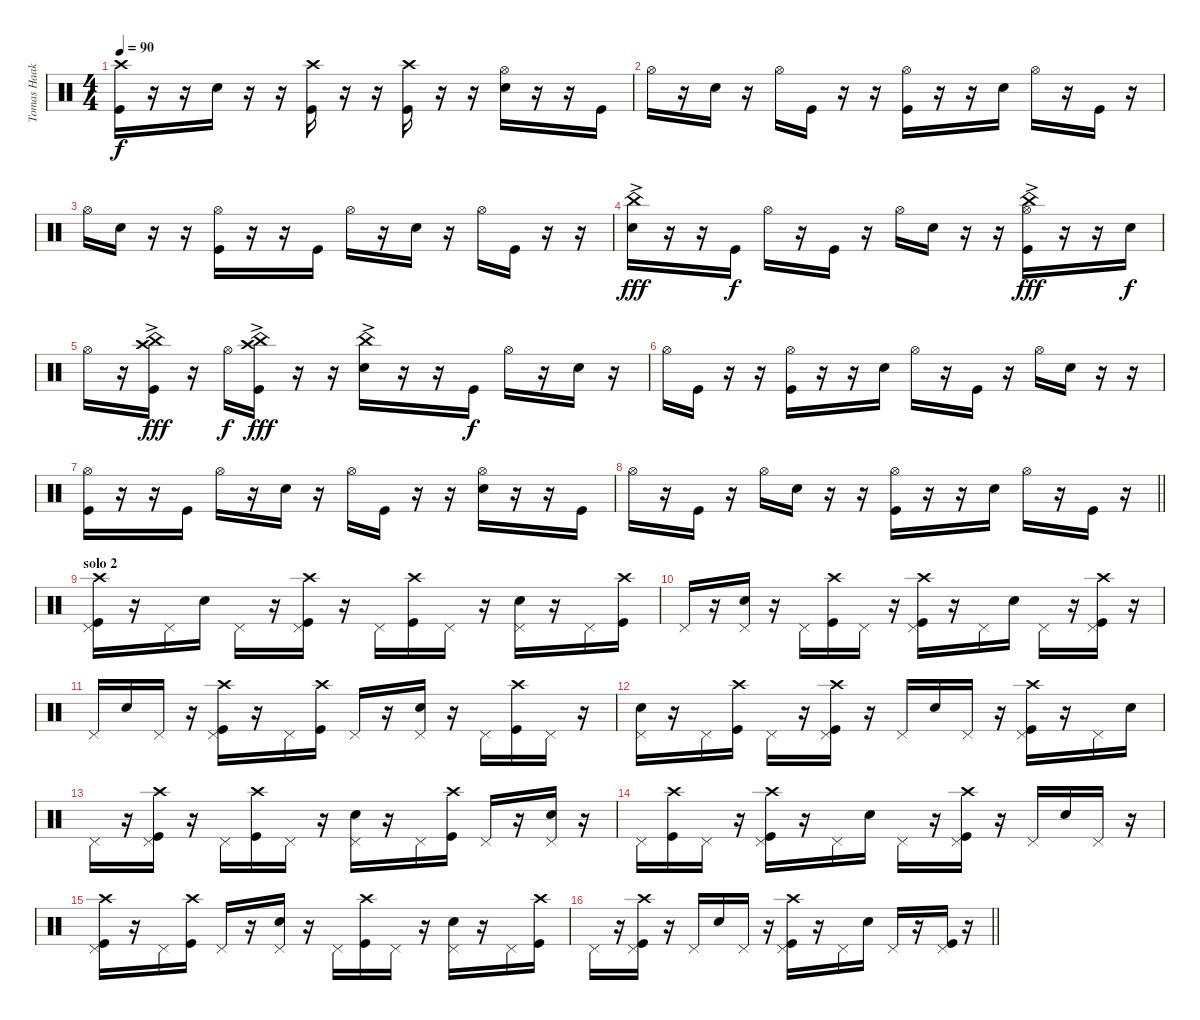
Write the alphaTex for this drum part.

\track ("Tomas Haake" "Tomas Haak") {instrument percussion}
\staff {score}
\articulation defaults
\ts (4 4)
\section ("" "")
\tempo 90
\clef neutral
\ks c
("Crash high (hit)" "Kick (hit)").16{dy f} r.16 r.16 "Electric Snare (hit)".16 r.16 r.16 ("Crash high (hit)" "Kick (hit)").16 r.16 r.16 ("Crash high (hit)" "Kick (hit)").16 r.16 r.16 ("Hi-Hat (open)" "Electric Snare (hit)").16 r.16 r.16 "Kick (hit)".16 |
"Hi-Hat (open)".16 r.16 "Electric Snare (hit)".16 r.16 "Hi-Hat (open)".16 "Kick (hit)".16 r.16 r.16 ("Hi-Hat (open)" "Kick (hit)").16 r.16 r.16 "Electric Snare (hit)".16 "Hi-Hat (open)".16 r.16 "Kick (hit)".16 r.16 |
"Hi-Hat (open)".16 "Electric Snare (hit)".16 r.16 r.16 ("Hi-Hat (open)" "Kick (hit)").16 r.16 r.16 "Kick (hit)".16 "Hi-Hat (open)".16 r.16 "Electric Snare (hit)".16 r.16 "Hi-Hat (open)".16 "Kick (hit)".16 r.16 r.16 |
("China (hit)"{ac} "Electric Snare (hit)").16{dy fff} r.16 r.16 "Kick (hit)".16{dy f} "Hi-Hat (open)".16 r.16 "Kick (hit)".16 r.16 "Hi-Hat (open)".16 "Electric Snare (hit)".16 r.16 r.16 ("Hi-Hat (open)" "China (hit)"{ac} "Kick (hit)").16{dy fff} r.16 r.16 "Electric Snare (hit)".16{dy f} |
"Hi-Hat (open)".16 r.16 ("Crash high (hit)" "China (hit)"{ac} "Kick (hit)").16{dy fff} r.16 "Hi-Hat (open)".16{dy f} ("Crash high (hit)" "China (hit)"{ac} "Kick (hit)").16{dy fff} r.16 r.16 ("China (hit)"{ac} "Electric Snare (hit)").16 r.16 r.16 "Kick (hit)".16{dy f} "Hi-Hat (open)".16 r.16 "Electric Snare (hit)".16 r.16 |
"Hi-Hat (open)".16 "Kick (hit)".16 r.16 r.16 ("Hi-Hat (open)" "Kick (hit)").16 r.16 r.16 "Electric Snare (hit)".16 "Hi-Hat (open)".16 r.16 "Kick (hit)".16 r.16 "Hi-Hat (open)".16 "Electric Snare (hit)".16 r.16 r.16 |
("Hi-Hat (open)" "Kick (hit)").16 r.16 r.16 "Kick (hit)".16 "Hi-Hat (open)".16 r.16 "Electric Snare (hit)".16 r.16 "Hi-Hat (open)".16 "Kick (hit)".16 r.16 r.16 ("Hi-Hat (open)" "Electric Snare (hit)").16 r.16 r.16 "Kick (hit)".16 |
\barLineRight lightlight "Hi-Hat (open)".16
r.16 "Kick (hit)".16 r.16 "Hi-Hat (open)".16 "Electric Snare (hit)".16 r.16 r.16 ("Hi-Hat (open)" "Kick (hit)").16 r.16 r.16 "Electric Snare (hit)".16 "Hi-Hat (open)".16 r.16 "Kick (hit)".16 r.16 |
\section ("" "solo 2")
("Crash high (hit)" "Pedal Hi-Hat (hit)" "Kick (hit)").16 r.16 "Pedal Hi-Hat (hit)".16 "Electric Snare (hit)".16 "Pedal Hi-Hat (hit)".16 r.16 ("Crash high (hit)" "Pedal Hi-Hat (hit)" "Kick (hit)").16 r.16 "Pedal Hi-Hat (hit)".16 ("Crash high (hit)" "Kick (hit)").16 "Pedal Hi-Hat (hit)".16 r.16 ("Pedal Hi-Hat (hit)" "Electric Snare (hit)").16 r.16 "Pedal Hi-Hat (hit)".16 ("Crash high (hit)" "Kick (hit)").16 |
"Pedal Hi-Hat (hit)".16 r.16 ("Pedal Hi-Hat (hit)" "Electric Snare (hit)").16 r.16 "Pedal Hi-Hat (hit)".16 ("Crash high (hit)" "Kick (hit)").16 "Pedal Hi-Hat (hit)".16 r.16 ("Crash high (hit)" "Pedal Hi-Hat (hit)" "Kick (hit)").16 r.16 "Pedal Hi-Hat (hit)".16 "Electric Snare (hit)".16 "Pedal Hi-Hat (hit)".16 r.16 ("Crash high (hit)" "Pedal Hi-Hat (hit)" "Kick (hit)").16 r.16 |
"Pedal Hi-Hat (hit)".16 "Electric Snare (hit)".16 "Pedal Hi-Hat (hit)".16 r.16 ("Crash high (hit)" "Pedal Hi-Hat (hit)" "Kick (hit)").16 r.16 "Pedal Hi-Hat (hit)".16 ("Crash high (hit)" "Kick (hit)").16 "Pedal Hi-Hat (hit)".16 r.16 ("Pedal Hi-Hat (hit)" "Electric Snare (hit)").16 r.16 "Pedal Hi-Hat (hit)".16 ("Crash high (hit)" "Kick (hit)").16 "Pedal Hi-Hat (hit)".16 r.16 |
("Pedal Hi-Hat (hit)" "Electric Snare (hit)").16 r.16 "Pedal Hi-Hat (hit)".16 ("Crash high (hit)" "Kick (hit)").16 "Pedal Hi-Hat (hit)".16 r.16 ("Crash high (hit)" "Pedal Hi-Hat (hit)" "Kick (hit)").16 r.16 "Pedal Hi-Hat (hit)".16 "Electric Snare (hit)".16 "Pedal Hi-Hat (hit)".16 r.16 ("Crash high (hit)" "Pedal Hi-Hat (hit)" "Kick (hit)").16 r.16 "Pedal Hi-Hat (hit)".16 "Electric Snare (hit)".16 |
"Pedal Hi-Hat (hit)".16 r.16 ("Crash high (hit)" "Pedal Hi-Hat (hit)" "Kick (hit)").16 r.16 "Pedal Hi-Hat (hit)".16 ("Crash high (hit)" "Kick (hit)").16 "Pedal Hi-Hat (hit)".16 r.16 ("Pedal Hi-Hat (hit)" "Electric Snare (hit)").16 r.16 "Pedal Hi-Hat (hit)".16 ("Crash high (hit)" "Kick (hit)").16 "Pedal Hi-Hat (hit)".16 r.16 ("Pedal Hi-Hat (hit)" "Electric Snare (hit)").16 r.16 |
"Pedal Hi-Hat (hit)".16 ("Crash high (hit)" "Kick (hit)").16 "Pedal Hi-Hat (hit)".16 r.16 ("Crash high (hit)" "Pedal Hi-Hat (hit)" "Kick (hit)").16 r.16 "Pedal Hi-Hat (hit)".16 "Electric Snare (hit)".16 "Pedal Hi-Hat (hit)".16 r.16 ("Crash high (hit)" "Pedal Hi-Hat (hit)" "Kick (hit)").16 r.16 "Pedal Hi-Hat (hit)".16 "Electric Snare (hit)".16 "Pedal Hi-Hat (hit)".16 r.16 |
("Crash high (hit)" "Pedal Hi-Hat (hit)" "Kick (hit)").16 r.16 "Pedal Hi-Hat (hit)".16 ("Crash high (hit)" "Kick (hit)").16 "Pedal Hi-Hat (hit)".16 r.16 ("Pedal Hi-Hat (hit)" "Electric Snare (hit)").16 r.16 "Pedal Hi-Hat (hit)".16 ("Crash high (hit)" "Kick (hit)").16 "Pedal Hi-Hat (hit)".16 r.16 ("Pedal Hi-Hat (hit)" "Electric Snare (hit)").16 r.16 "Pedal Hi-Hat (hit)".16 ("Crash high (hit)" "Kick (hit)").16 |
\barLineRight lightlight "Pedal Hi-Hat (hit)".16
r.16 ("Crash high (hit)" "Pedal Hi-Hat (hit)" "Kick (hit)").16 r.16 "Pedal Hi-Hat (hit)".16 "Electric Snare (hit)".16 "Pedal Hi-Hat (hit)".16 r.16 ("Crash high (hit)" "Pedal Hi-Hat (hit)" "Kick (hit)").16 r.16 "Pedal Hi-Hat (hit)".16 "Electric Snare (hit)".16 "Pedal Hi-Hat (hit)".16 r.16 ("Pedal Hi-Hat (hit)" "Kick (hit)").16 r.16
